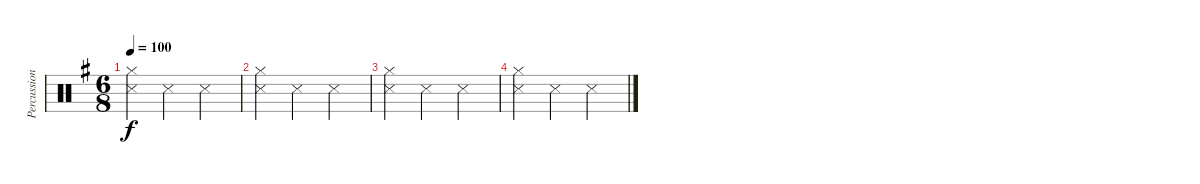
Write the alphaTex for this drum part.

\track ("Percussion" "Percussion") {mute instrument percussion}
\staff {score}
\articulation defaults
\ts (6 8)
\tempo 100
\clef neutral
\ks g
("Hi-Hat (closed)" "Snare (side stick) 3").4{dy f} "Snare (side stick) 3".4 "Snare (side stick) 3".4 |
("Hi-Hat (closed)" "Snare (side stick) 3").4 "Snare (side stick) 3".4 "Snare (side stick) 3".4 |
("Hi-Hat (closed)" "Snare (side stick) 3").4 "Snare (side stick) 3".4 "Snare (side stick) 3".4 |
("Hi-Hat (closed)" "Snare (side stick) 3").4 "Snare (side stick) 3".4 "Snare (side stick) 3".4
